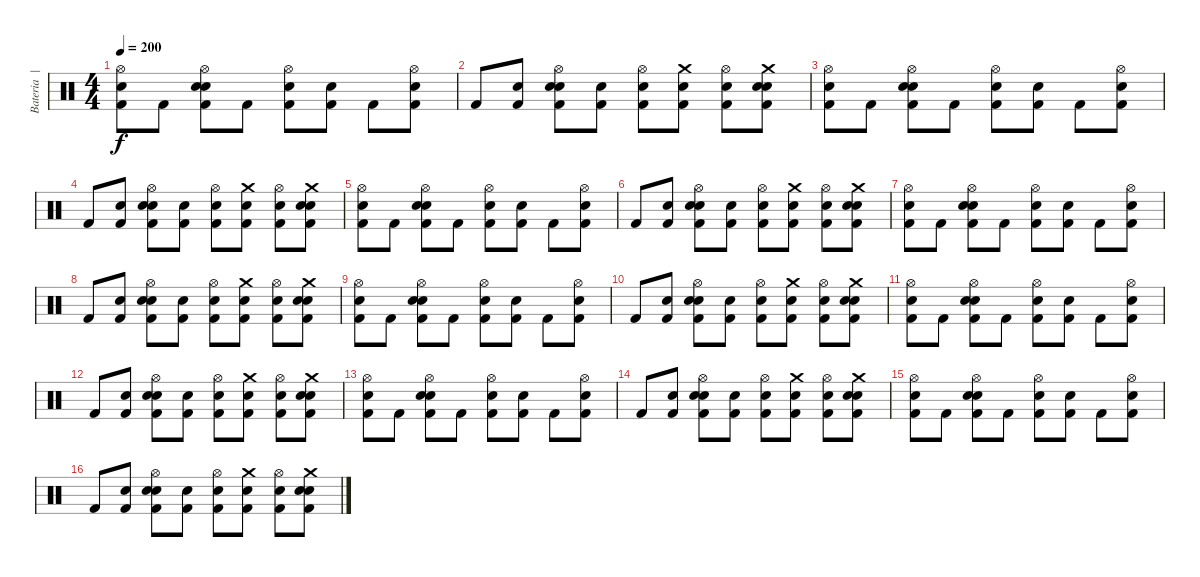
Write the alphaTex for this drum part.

\track ("Bateria  | Nô" "Bateria  |") {instrument percussion}
\staff {score}
\articulation defaults
\ts (4 4)
\tempo 200
\clef neutral
\ks c
("Hi-Hat (open)" "Electric Snare (hit)" "Kick (hit) 2").8{dy f} "Kick (hit) 2".8 ("Hi-Hat (open)" "Snare (hit) 2" "Electric Snare (hit)" "Kick (hit) 2").8 "Kick (hit) 2".8 ("Hi-Hat (open)" "Electric Snare (hit)" "Kick (hit) 2").8 ("Electric Snare (hit)" "Kick (hit) 2").8 "Kick (hit) 2".8 ("Hi-Hat (open)" "Snare (hit) 2" "Kick (hit) 2").8 |
"Kick (hit) 2".8 ("Electric Snare (hit)" "Kick (hit) 2").8 ("Hi-Hat (open)" "Electric Snare (hit)" "Snare (hit) 2" "Kick (hit) 2").8 ("Electric Snare (hit)" "Kick (hit) 2").8 ("Hi-Hat (open)" "Electric Snare (hit)" "Kick (hit) 2").8 ("Crash medium (hit)" "Electric Snare (hit)" "Kick (hit) 2").8 ("Hi-Hat (open)" "Electric Snare (hit)" "Kick (hit) 2").8 ("Crash medium (hit)" "Snare (hit) 2" "Electric Snare (hit)" "Kick (hit) 2").8 |
("Hi-Hat (open)" "Electric Snare (hit)" "Kick (hit) 2").8 "Kick (hit) 2".8 ("Hi-Hat (open)" "Snare (hit) 2" "Electric Snare (hit)" "Kick (hit) 2").8 "Kick (hit) 2".8 ("Hi-Hat (open)" "Electric Snare (hit)" "Kick (hit) 2").8 ("Electric Snare (hit)" "Kick (hit) 2").8 "Kick (hit) 2".8 ("Hi-Hat (open)" "Snare (hit) 2" "Kick (hit) 2").8 |
"Kick (hit) 2".8 ("Electric Snare (hit)" "Kick (hit) 2").8 ("Hi-Hat (open)" "Electric Snare (hit)" "Snare (hit) 2" "Kick (hit) 2").8 ("Electric Snare (hit)" "Kick (hit) 2").8 ("Hi-Hat (open)" "Electric Snare (hit)" "Kick (hit) 2").8 ("Crash medium (hit)" "Electric Snare (hit)" "Kick (hit) 2").8 ("Hi-Hat (open)" "Electric Snare (hit)" "Kick (hit) 2").8 ("Crash medium (hit)" "Snare (hit) 2" "Electric Snare (hit)" "Kick (hit) 2").8 |
("Hi-Hat (open)" "Electric Snare (hit)" "Kick (hit) 2").8 "Kick (hit) 2".8 ("Hi-Hat (open)" "Snare (hit) 2" "Electric Snare (hit)" "Kick (hit) 2").8 "Kick (hit) 2".8 ("Hi-Hat (open)" "Electric Snare (hit)" "Kick (hit) 2").8 ("Electric Snare (hit)" "Kick (hit) 2").8 "Kick (hit) 2".8 ("Hi-Hat (open)" "Snare (hit) 2" "Kick (hit) 2").8 |
"Kick (hit) 2".8 ("Electric Snare (hit)" "Kick (hit) 2").8 ("Hi-Hat (open)" "Electric Snare (hit)" "Snare (hit) 2" "Kick (hit) 2").8 ("Electric Snare (hit)" "Kick (hit) 2").8 ("Hi-Hat (open)" "Electric Snare (hit)" "Kick (hit) 2").8 ("Crash medium (hit)" "Electric Snare (hit)" "Kick (hit) 2").8 ("Hi-Hat (open)" "Electric Snare (hit)" "Kick (hit) 2").8 ("Crash medium (hit)" "Snare (hit) 2" "Electric Snare (hit)" "Kick (hit) 2").8 |
("Hi-Hat (open)" "Electric Snare (hit)" "Kick (hit) 2").8 "Kick (hit) 2".8 ("Hi-Hat (open)" "Snare (hit) 2" "Electric Snare (hit)" "Kick (hit) 2").8 "Kick (hit) 2".8 ("Hi-Hat (open)" "Electric Snare (hit)" "Kick (hit) 2").8 ("Electric Snare (hit)" "Kick (hit) 2").8 "Kick (hit) 2".8 ("Hi-Hat (open)" "Snare (hit) 2" "Kick (hit) 2").8 |
"Kick (hit) 2".8 ("Electric Snare (hit)" "Kick (hit) 2").8 ("Hi-Hat (open)" "Electric Snare (hit)" "Snare (hit) 2" "Kick (hit) 2").8 ("Electric Snare (hit)" "Kick (hit) 2").8 ("Hi-Hat (open)" "Electric Snare (hit)" "Kick (hit) 2").8 ("Crash medium (hit)" "Electric Snare (hit)" "Kick (hit) 2").8 ("Hi-Hat (open)" "Electric Snare (hit)" "Kick (hit) 2").8 ("Crash medium (hit)" "Snare (hit) 2" "Electric Snare (hit)" "Kick (hit) 2").8 |
("Hi-Hat (open)" "Electric Snare (hit)" "Kick (hit) 2").8 "Kick (hit) 2".8 ("Hi-Hat (open)" "Snare (hit) 2" "Electric Snare (hit)" "Kick (hit) 2").8 "Kick (hit) 2".8 ("Hi-Hat (open)" "Electric Snare (hit)" "Kick (hit) 2").8 ("Electric Snare (hit)" "Kick (hit) 2").8 "Kick (hit) 2".8 ("Hi-Hat (open)" "Snare (hit) 2" "Kick (hit) 2").8 |
"Kick (hit) 2".8 ("Electric Snare (hit)" "Kick (hit) 2").8 ("Hi-Hat (open)" "Electric Snare (hit)" "Snare (hit) 2" "Kick (hit) 2").8 ("Electric Snare (hit)" "Kick (hit) 2").8 ("Hi-Hat (open)" "Electric Snare (hit)" "Kick (hit) 2").8 ("Crash medium (hit)" "Electric Snare (hit)" "Kick (hit) 2").8 ("Hi-Hat (open)" "Electric Snare (hit)" "Kick (hit) 2").8 ("Crash medium (hit)" "Snare (hit) 2" "Electric Snare (hit)" "Kick (hit) 2").8 |
("Hi-Hat (open)" "Electric Snare (hit)" "Kick (hit) 2").8 "Kick (hit) 2".8 ("Hi-Hat (open)" "Snare (hit) 2" "Electric Snare (hit)" "Kick (hit) 2").8 "Kick (hit) 2".8 ("Hi-Hat (open)" "Electric Snare (hit)" "Kick (hit) 2").8 ("Electric Snare (hit)" "Kick (hit) 2").8 "Kick (hit) 2".8 ("Hi-Hat (open)" "Snare (hit) 2" "Kick (hit) 2").8 |
"Kick (hit) 2".8 ("Electric Snare (hit)" "Kick (hit) 2").8 ("Hi-Hat (open)" "Electric Snare (hit)" "Snare (hit) 2" "Kick (hit) 2").8 ("Electric Snare (hit)" "Kick (hit) 2").8 ("Hi-Hat (open)" "Electric Snare (hit)" "Kick (hit) 2").8 ("Crash medium (hit)" "Electric Snare (hit)" "Kick (hit) 2").8 ("Hi-Hat (open)" "Electric Snare (hit)" "Kick (hit) 2").8 ("Crash medium (hit)" "Snare (hit) 2" "Electric Snare (hit)" "Kick (hit) 2").8 |
("Hi-Hat (open)" "Electric Snare (hit)" "Kick (hit) 2").8 "Kick (hit) 2".8 ("Hi-Hat (open)" "Snare (hit) 2" "Electric Snare (hit)" "Kick (hit) 2").8 "Kick (hit) 2".8 ("Hi-Hat (open)" "Electric Snare (hit)" "Kick (hit) 2").8 ("Electric Snare (hit)" "Kick (hit) 2").8 "Kick (hit) 2".8 ("Hi-Hat (open)" "Snare (hit) 2" "Kick (hit) 2").8 |
"Kick (hit) 2".8 ("Electric Snare (hit)" "Kick (hit) 2").8 ("Hi-Hat (open)" "Electric Snare (hit)" "Snare (hit) 2" "Kick (hit) 2").8 ("Electric Snare (hit)" "Kick (hit) 2").8 ("Hi-Hat (open)" "Electric Snare (hit)" "Kick (hit) 2").8 ("Crash medium (hit)" "Electric Snare (hit)" "Kick (hit) 2").8 ("Hi-Hat (open)" "Electric Snare (hit)" "Kick (hit) 2").8 ("Crash medium (hit)" "Snare (hit) 2" "Electric Snare (hit)" "Kick (hit) 2").8 |
("Hi-Hat (open)" "Electric Snare (hit)" "Kick (hit) 2").8 "Kick (hit) 2".8 ("Hi-Hat (open)" "Snare (hit) 2" "Electric Snare (hit)" "Kick (hit) 2").8 "Kick (hit) 2".8 ("Hi-Hat (open)" "Electric Snare (hit)" "Kick (hit) 2").8 ("Electric Snare (hit)" "Kick (hit) 2").8 "Kick (hit) 2".8 ("Hi-Hat (open)" "Snare (hit) 2" "Kick (hit) 2").8 |
"Kick (hit) 2".8 ("Electric Snare (hit)" "Kick (hit) 2").8 ("Hi-Hat (open)" "Electric Snare (hit)" "Snare (hit) 2" "Kick (hit) 2").8 ("Electric Snare (hit)" "Kick (hit) 2").8 ("Hi-Hat (open)" "Electric Snare (hit)" "Kick (hit) 2").8 ("Crash medium (hit)" "Electric Snare (hit)" "Kick (hit) 2").8 ("Hi-Hat (open)" "Electric Snare (hit)" "Kick (hit) 2").8 ("Crash medium (hit)" "Snare (hit) 2" "Electric Snare (hit)" "Kick (hit) 2").8
